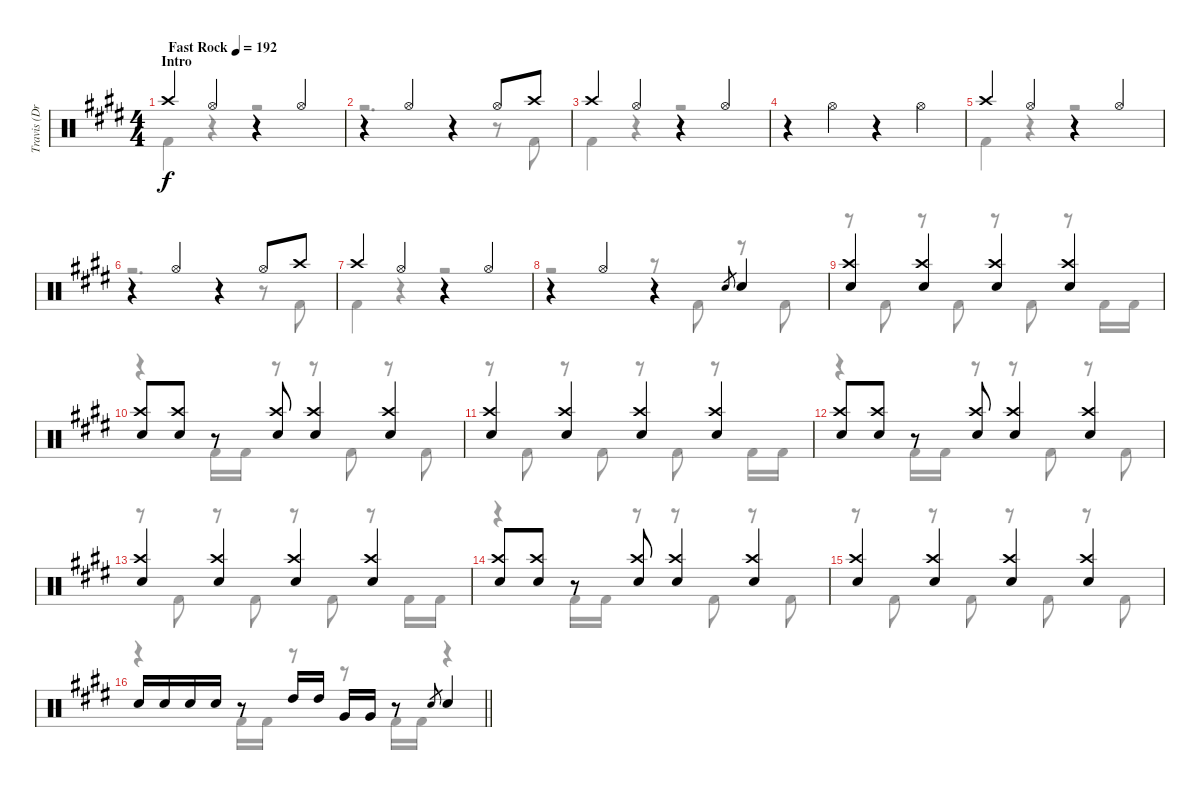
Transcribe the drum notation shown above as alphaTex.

\track ("Travis (Drums)" "Travis (Dr") {instrument percussion}
\staff {score}
\articulation defaults
\voice
\ts (4 4)
\section ("" "Intro")
\tempo (192 "Fast Rock")
\clef neutral
\ks e "Crash high (hit)".4{dy f} "Hi-Hat (open)".4
r.4 "Hi-Hat (open)".4 |
r.4 "Hi-Hat (open)".4 r.4 "Hi-Hat (open)".8 "Crash high (hit)".8 |
"Crash high (hit)".4 "Hi-Hat (open)".4 r.4 "Hi-Hat (open)".4 |
r.4 "Hi-Hat (open)".4 r.4 "Hi-Hat (open)".4 |
"Crash high (hit)".4 "Hi-Hat (open)".4 r.4 "Hi-Hat (open)".4 |
r.4 "Hi-Hat (open)".4 r.4 "Hi-Hat (open)".8 "Crash high (hit)".8 |
"Crash high (hit)".4 "Hi-Hat (open)".4 r.4 "Hi-Hat (open)".4 |
r.4 "Hi-Hat (open)".4 r.4 "Electric Snare (hit)".8{gr} "Electric Snare (hit)".4 |
("Crash high (hit)" "Electric Snare (hit)").4 ("Crash high (hit)" "Electric Snare (hit)").4 ("Crash high (hit)" "Electric Snare (hit)").4 ("Crash high (hit)" "Electric Snare (hit)").4 |
("Crash high (hit)" "Electric Snare (hit)").8 ("Crash high (hit)" "Electric Snare (hit)").8 r.8 ("Crash high (hit)" "Electric Snare (hit)").8 ("Crash high (hit)" "Electric Snare (hit)").4 ("Crash high (hit)" "Electric Snare (hit)").4 |
("Crash high (hit)" "Electric Snare (hit)").4 ("Crash high (hit)" "Electric Snare (hit)").4 ("Crash high (hit)" "Electric Snare (hit)").4 ("Crash high (hit)" "Electric Snare (hit)").4 |
("Crash high (hit)" "Electric Snare (hit)").8 ("Crash high (hit)" "Electric Snare (hit)").8 r.8 ("Crash high (hit)" "Electric Snare (hit)").8 ("Crash high (hit)" "Electric Snare (hit)").4 ("Crash high (hit)" "Electric Snare (hit)").4 |
("Crash high (hit)" "Electric Snare (hit)").4 ("Crash high (hit)" "Electric Snare (hit)").4 ("Crash high (hit)" "Electric Snare (hit)").4 ("Crash high (hit)" "Electric Snare (hit)").4 |
("Crash high (hit)" "Electric Snare (hit)").8 ("Crash high (hit)" "Electric Snare (hit)").8 r.8 ("Crash high (hit)" "Electric Snare (hit)").8 ("Crash high (hit)" "Electric Snare (hit)").4 ("Crash high (hit)" "Electric Snare (hit)").4 |
("Crash high (hit)" "Electric Snare (hit)").4 ("Crash high (hit)" "Electric Snare (hit)").4 ("Crash high (hit)" "Electric Snare (hit)").4 ("Crash high (hit)" "Electric Snare (hit)").4 |
\barLineRight lightlight "Electric Snare (hit)".16 "Electric Snare (hit)".16 "Electric Snare (hit)".16 "Electric Snare (hit)".16
r.8 "High Tom (hit)".16 "High Tom (hit)".16 "Very Low Tom (hit)".16 "Very Low Tom (hit)".16 r.8 "Electric Snare (hit)".8{gr} "Electric Snare (hit)".4
\voice
\clef neutral
\ottava regular
\simile none
\ks e "Kick (hit) 2".4{dy f}
r.4 r.2 |
r.2{d} r.8 "Kick (hit) 2".8 |
"Kick (hit) 2".4 r.4 r.2 |
|
"Kick (hit) 2".4 r.4 r.2 |
r.2{d} r.8 "Kick (hit) 2".8 |
"Kick (hit) 2".4 r.4 r.2 |
r.2 r.8 "Kick (hit) 2".8 r.8 "Kick (hit) 2".8 |
r.8 "Kick (hit) 2".8 r.8 "Kick (hit) 2".8 r.8 "Kick (hit) 2".8 r.8 "Kick (hit) 2".16 "Kick (hit) 2".16 |
r.4 "Kick (hit) 2".16 "Kick (hit) 2".16 r.8 r.8 "Kick (hit) 2".8 r.8 "Kick (hit) 2".8 |
r.8 "Kick (hit) 2".8 r.8 "Kick (hit) 2".8 r.8 "Kick (hit) 2".8 r.8 "Kick (hit) 2".16 "Kick (hit) 2".16 |
r.4 "Kick (hit) 2".16 "Kick (hit) 2".16 r.8 r.8 "Kick (hit) 2".8 r.8 "Kick (hit) 2".8 |
r.8 "Kick (hit) 2".8 r.8 "Kick (hit) 2".8 r.8 "Kick (hit) 2".8 r.8 "Kick (hit) 2".16 "Kick (hit) 2".16 |
r.4 "Kick (hit) 2".16 "Kick (hit) 2".16 r.8 r.8 "Kick (hit) 2".8 r.8 "Kick (hit) 2".8 |
r.8 "Kick (hit) 2".8 r.8 "Kick (hit) 2".8 r.8 "Kick (hit) 2".8 r.8 "Kick (hit) 2".8 |
\barLineRight lightlight
r.4 "Kick (hit) 2".16 "Kick (hit) 2".16 r.8 r.8 "Kick (hit) 2".16 "Kick (hit) 2".16 r.4
